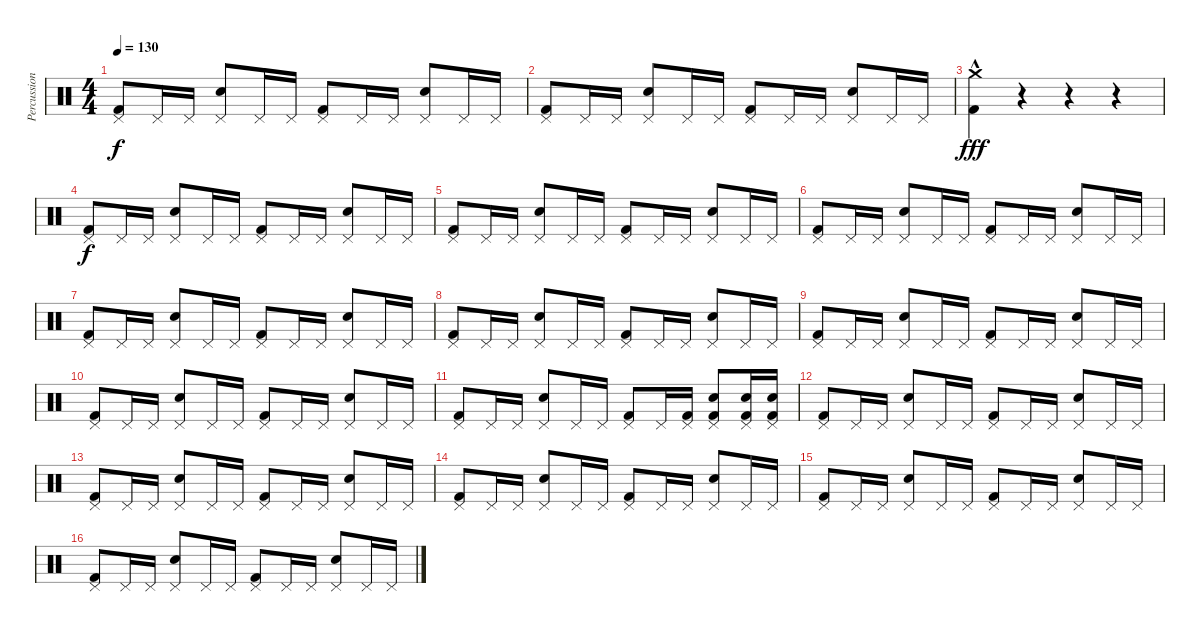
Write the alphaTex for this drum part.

\track ("Percussion" "Percussion") {instrument percussion}
\staff {score}
\articulation defaults
\ts (4 4)
\tempo 130
\clef neutral
\ks c
("Pedal Hi-Hat (hit)" "Kick (hit) 2").8{dy f} "Pedal Hi-Hat (hit)".16 "Pedal Hi-Hat (hit)".16 ("Pedal Hi-Hat (hit)" "Snare (hit) 2").8 "Pedal Hi-Hat (hit)".16 "Pedal Hi-Hat (hit)".16 ("Pedal Hi-Hat (hit)" "Kick (hit) 2").8 "Pedal Hi-Hat (hit)".16 "Pedal Hi-Hat (hit)".16 ("Pedal Hi-Hat (hit)" "Snare (hit) 2").8 "Pedal Hi-Hat (hit)".16 "Pedal Hi-Hat (hit)".16 |
("Pedal Hi-Hat (hit)" "Kick (hit) 2").8 "Pedal Hi-Hat (hit)".16 "Pedal Hi-Hat (hit)".16 ("Pedal Hi-Hat (hit)" "Snare (hit) 2").8 "Pedal Hi-Hat (hit)".16 "Pedal Hi-Hat (hit)".16 ("Pedal Hi-Hat (hit)" "Kick (hit) 2").8 "Pedal Hi-Hat (hit)".16 "Pedal Hi-Hat (hit)".16 ("Pedal Hi-Hat (hit)" "Snare (hit) 2").8 "Pedal Hi-Hat (hit)".16 "Pedal Hi-Hat (hit)".16 |
("Crash medium (hit)"{hac} "Kick (hit) 2").4{dy fff} r.4 r.4 r.4 |
("Pedal Hi-Hat (hit)" "Kick (hit) 2").8{dy f} "Pedal Hi-Hat (hit)".16 "Pedal Hi-Hat (hit)".16 ("Pedal Hi-Hat (hit)" "Snare (hit) 2").8 "Pedal Hi-Hat (hit)".16 "Pedal Hi-Hat (hit)".16 ("Pedal Hi-Hat (hit)" "Kick (hit) 2").8 "Pedal Hi-Hat (hit)".16 "Pedal Hi-Hat (hit)".16 ("Pedal Hi-Hat (hit)" "Snare (hit) 2").8 "Pedal Hi-Hat (hit)".16 "Pedal Hi-Hat (hit)".16 |
("Pedal Hi-Hat (hit)" "Kick (hit) 2").8 "Pedal Hi-Hat (hit)".16 "Pedal Hi-Hat (hit)".16 ("Pedal Hi-Hat (hit)" "Snare (hit) 2").8 "Pedal Hi-Hat (hit)".16 "Pedal Hi-Hat (hit)".16 ("Pedal Hi-Hat (hit)" "Kick (hit) 2").8 "Pedal Hi-Hat (hit)".16 "Pedal Hi-Hat (hit)".16 ("Pedal Hi-Hat (hit)" "Snare (hit) 2").8 "Pedal Hi-Hat (hit)".16 "Pedal Hi-Hat (hit)".16 |
("Pedal Hi-Hat (hit)" "Kick (hit) 2").8 "Pedal Hi-Hat (hit)".16 "Pedal Hi-Hat (hit)".16 ("Pedal Hi-Hat (hit)" "Snare (hit) 2").8 "Pedal Hi-Hat (hit)".16 "Pedal Hi-Hat (hit)".16 ("Pedal Hi-Hat (hit)" "Kick (hit) 2").8 "Pedal Hi-Hat (hit)".16 "Pedal Hi-Hat (hit)".16 ("Pedal Hi-Hat (hit)" "Snare (hit) 2").8 "Pedal Hi-Hat (hit)".16 "Pedal Hi-Hat (hit)".16 |
("Pedal Hi-Hat (hit)" "Kick (hit) 2").8 "Pedal Hi-Hat (hit)".16 "Pedal Hi-Hat (hit)".16 ("Pedal Hi-Hat (hit)" "Snare (hit) 2").8 "Pedal Hi-Hat (hit)".16 "Pedal Hi-Hat (hit)".16 ("Pedal Hi-Hat (hit)" "Kick (hit) 2").8 "Pedal Hi-Hat (hit)".16 "Pedal Hi-Hat (hit)".16 ("Pedal Hi-Hat (hit)" "Snare (hit) 2").8 "Pedal Hi-Hat (hit)".16 "Pedal Hi-Hat (hit)".16 |
("Pedal Hi-Hat (hit)" "Kick (hit) 2").8 "Pedal Hi-Hat (hit)".16 "Pedal Hi-Hat (hit)".16 ("Pedal Hi-Hat (hit)" "Snare (hit) 2").8 "Pedal Hi-Hat (hit)".16 "Pedal Hi-Hat (hit)".16 ("Pedal Hi-Hat (hit)" "Kick (hit) 2").8 "Pedal Hi-Hat (hit)".16 "Pedal Hi-Hat (hit)".16 ("Pedal Hi-Hat (hit)" "Snare (hit) 2").8 "Pedal Hi-Hat (hit)".16 "Pedal Hi-Hat (hit)".16 |
("Pedal Hi-Hat (hit)" "Kick (hit) 2").8 "Pedal Hi-Hat (hit)".16 "Pedal Hi-Hat (hit)".16 ("Pedal Hi-Hat (hit)" "Snare (hit) 2").8 "Pedal Hi-Hat (hit)".16 "Pedal Hi-Hat (hit)".16 ("Pedal Hi-Hat (hit)" "Kick (hit) 2").8 "Pedal Hi-Hat (hit)".16 "Pedal Hi-Hat (hit)".16 ("Pedal Hi-Hat (hit)" "Snare (hit) 2").8 "Pedal Hi-Hat (hit)".16 "Pedal Hi-Hat (hit)".16 |
("Pedal Hi-Hat (hit)" "Kick (hit) 2").8 "Pedal Hi-Hat (hit)".16 "Pedal Hi-Hat (hit)".16 ("Pedal Hi-Hat (hit)" "Snare (hit) 2").8 "Pedal Hi-Hat (hit)".16 "Pedal Hi-Hat (hit)".16 ("Pedal Hi-Hat (hit)" "Kick (hit) 2").8 "Pedal Hi-Hat (hit)".16 "Pedal Hi-Hat (hit)".16 ("Pedal Hi-Hat (hit)" "Snare (hit) 2").8 "Pedal Hi-Hat (hit)".16 "Pedal Hi-Hat (hit)".16 |
("Pedal Hi-Hat (hit)" "Kick (hit) 2").8 "Pedal Hi-Hat (hit)".16 "Pedal Hi-Hat (hit)".16 ("Pedal Hi-Hat (hit)" "Snare (hit) 2").8 "Pedal Hi-Hat (hit)".16 "Pedal Hi-Hat (hit)".16 ("Pedal Hi-Hat (hit)" "Kick (hit) 2").8 "Pedal Hi-Hat (hit)".16 ("Pedal Hi-Hat (hit)" "Kick (hit) 2").16 ("Pedal Hi-Hat (hit)" "Snare (hit) 2" "Kick (hit) 2").8 ("Pedal Hi-Hat (hit)" "Snare (hit) 2" "Kick (hit) 2").16 ("Pedal Hi-Hat (hit)" "Snare (hit) 2" "Kick (hit) 2").16 |
("Pedal Hi-Hat (hit)" "Kick (hit) 2").8 "Pedal Hi-Hat (hit)".16 "Pedal Hi-Hat (hit)".16 ("Pedal Hi-Hat (hit)" "Snare (hit) 2").8 "Pedal Hi-Hat (hit)".16 "Pedal Hi-Hat (hit)".16 ("Pedal Hi-Hat (hit)" "Kick (hit) 2").8 "Pedal Hi-Hat (hit)".16 "Pedal Hi-Hat (hit)".16 ("Pedal Hi-Hat (hit)" "Snare (hit) 2").8 "Pedal Hi-Hat (hit)".16 "Pedal Hi-Hat (hit)".16 |
("Pedal Hi-Hat (hit)" "Kick (hit) 2").8 "Pedal Hi-Hat (hit)".16 "Pedal Hi-Hat (hit)".16 ("Pedal Hi-Hat (hit)" "Snare (hit) 2").8 "Pedal Hi-Hat (hit)".16 "Pedal Hi-Hat (hit)".16 ("Pedal Hi-Hat (hit)" "Kick (hit) 2").8 "Pedal Hi-Hat (hit)".16 "Pedal Hi-Hat (hit)".16 ("Pedal Hi-Hat (hit)" "Snare (hit) 2").8 "Pedal Hi-Hat (hit)".16 "Pedal Hi-Hat (hit)".16 |
("Pedal Hi-Hat (hit)" "Kick (hit) 2").8 "Pedal Hi-Hat (hit)".16 "Pedal Hi-Hat (hit)".16 ("Pedal Hi-Hat (hit)" "Snare (hit) 2").8 "Pedal Hi-Hat (hit)".16 "Pedal Hi-Hat (hit)".16 ("Pedal Hi-Hat (hit)" "Kick (hit) 2").8 "Pedal Hi-Hat (hit)".16 "Pedal Hi-Hat (hit)".16 ("Pedal Hi-Hat (hit)" "Snare (hit) 2").8 "Pedal Hi-Hat (hit)".16 "Pedal Hi-Hat (hit)".16 |
("Pedal Hi-Hat (hit)" "Kick (hit) 2").8 "Pedal Hi-Hat (hit)".16 "Pedal Hi-Hat (hit)".16 ("Pedal Hi-Hat (hit)" "Snare (hit) 2").8 "Pedal Hi-Hat (hit)".16 "Pedal Hi-Hat (hit)".16 ("Pedal Hi-Hat (hit)" "Kick (hit) 2").8 "Pedal Hi-Hat (hit)".16 "Pedal Hi-Hat (hit)".16 ("Pedal Hi-Hat (hit)" "Snare (hit) 2").8 "Pedal Hi-Hat (hit)".16 "Pedal Hi-Hat (hit)".16 |
("Pedal Hi-Hat (hit)" "Kick (hit) 2").8 "Pedal Hi-Hat (hit)".16 "Pedal Hi-Hat (hit)".16 ("Pedal Hi-Hat (hit)" "Snare (hit) 2").8 "Pedal Hi-Hat (hit)".16 "Pedal Hi-Hat (hit)".16 ("Pedal Hi-Hat (hit)" "Kick (hit) 2").8 "Pedal Hi-Hat (hit)".16 "Pedal Hi-Hat (hit)".16 ("Pedal Hi-Hat (hit)" "Snare (hit) 2").8 "Pedal Hi-Hat (hit)".16 "Pedal Hi-Hat (hit)".16
